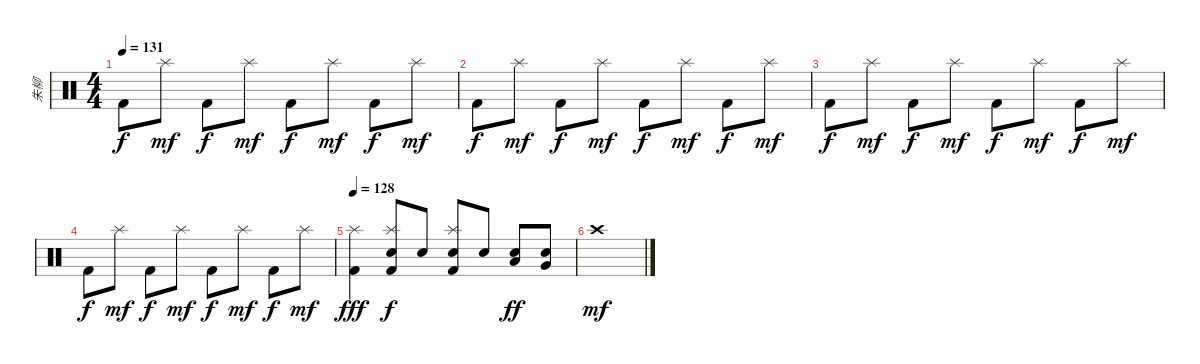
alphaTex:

\track ("朱柳" "朱柳") {instrument percussion}
\staff {score}
\articulation defaults
\ts (4 4)
\tempo 131
\clef neutral
\ks c "Kick (hit) 2".8{dy f} "Splash (hit)".8{dy mf} "Kick (hit) 2".8{dy f} "Splash (hit)".8{dy mf} "Kick (hit) 2".8{dy f} "Splash (hit)".8{dy mf} "Kick (hit) 2".8{dy f} "Splash (hit)".8{dy mf}
|
"Kick (hit) 2".8{dy f} "Splash (hit)".8{dy mf} "Kick (hit) 2".8{dy f} "Splash (hit)".8{dy mf} "Kick (hit) 2".8{dy f} "Splash (hit)".8{dy mf} "Kick (hit) 2".8{dy f} "Splash (hit)".8{dy mf} |
"Kick (hit) 2".8{dy f} "Splash (hit)".8{dy mf} "Kick (hit) 2".8{dy f} "Splash (hit)".8{dy mf} "Kick (hit) 2".8{dy f} "Splash (hit)".8{dy mf} "Kick (hit) 2".8{dy f} "Splash (hit)".8{dy mf} |
"Kick (hit) 2".8{dy f} "Splash (hit)".8{dy mf} "Kick (hit) 2".8{dy f} "Splash (hit)".8{dy mf} "Kick (hit) 2".8{dy f} "Splash (hit)".8{dy mf} "Kick (hit) 2".8{dy f} "Splash (hit)".8{dy mf} |
\tempo 128
("Splash (hit)" "Kick (hit) 2").4{dy fff} ("Splash (hit)" "Snare (hit) 2" "Kick (hit) 2").8{dy f} "Snare (hit) 2".8 ("Splash (hit)" "Electric Snare (hit)" "Kick (hit) 2").8 "Electric Snare (hit)".8 ("Low Floor Tom (hit)" "Electric Snare (hit)").8{dy ff} ("Very Low Tom (hit)" "Electric Snare (hit)").8 |
"Crash high (hit)".1{dy mf}
